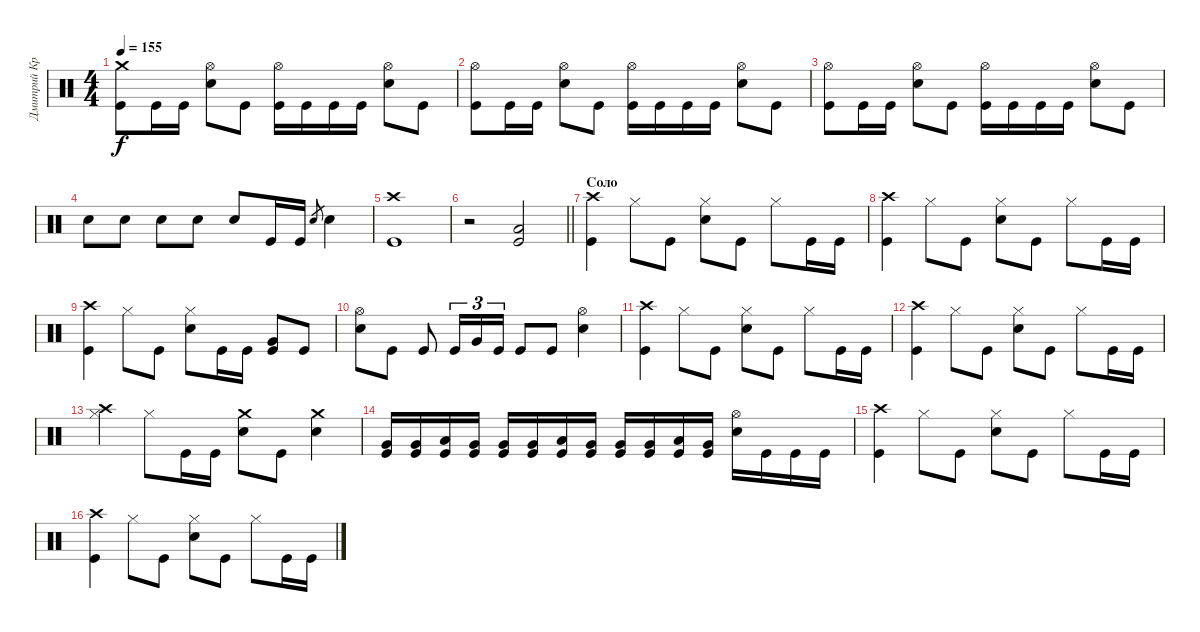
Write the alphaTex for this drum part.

\track ("Дмитрий Кривенков" "Дмитрий Кр") {instrument percussion}
\staff {score}
\articulation defaults
\ts (4 4)
\tempo 155
\clef neutral
\ks c
("Crash medium (hit)" "Kick (hit)").8{dy f} "Kick (hit)".16 "Kick (hit)".16 ("Hi-Hat (open)" "Snare (hit) 2").8 "Kick (hit)".8 ("Hi-Hat (open)" "Kick (hit)").16 "Kick (hit)".16 "Kick (hit)".16 "Kick (hit)".16 ("Hi-Hat (open)" "Snare (hit) 2").8 "Kick (hit)".8 |
("Hi-Hat (open)" "Kick (hit)").8 "Kick (hit)".16 "Kick (hit)".16 ("Hi-Hat (open)" "Snare (hit) 2").8 "Kick (hit)".8 ("Hi-Hat (open)" "Kick (hit)").16 "Kick (hit)".16 "Kick (hit)".16 "Kick (hit)".16 ("Hi-Hat (open)" "Snare (hit) 2").8 "Kick (hit)".8 |
("Hi-Hat (open)" "Kick (hit)").8 "Kick (hit)".16 "Kick (hit)".16 ("Hi-Hat (open)" "Snare (hit) 2").8 "Kick (hit)".8 ("Hi-Hat (open)" "Kick (hit)").16 "Kick (hit)".16 "Kick (hit)".16 "Kick (hit)".16 ("Hi-Hat (open)" "Snare (hit) 2").8 "Kick (hit)".8 |
"Snare (hit) 2".8 "Snare (hit) 2".8 "Snare (hit) 2".8 "Snare (hit) 2".8 "Snare (hit) 2".8 "Kick (hit)".16 "Kick (hit)".16 "Snare (hit) 2".8{gr} "Snare (hit) 2".4 |
("Crash high (hit)" "Kick (hit)").1 |
\barLineRight lightlight
r.2 ("Low Tom (hit)" "Kick (hit)").2 |
\section ("" "Соло")
("Crash high (hit)" "Kick (hit)").4 "Hi-Hat (closed)".8 "Kick (hit)".8 ("Hi-Hat (closed)" "Snare (hit) 2").8 "Kick (hit)".8 "Hi-Hat (closed)".8 "Kick (hit)".16 "Kick (hit)".16 |
("Crash high (hit)" "Kick (hit)").4 "Hi-Hat (closed)".8 "Kick (hit)".8 ("Hi-Hat (closed)" "Snare (hit) 2").8 "Kick (hit)".8 "Hi-Hat (closed)".8 "Kick (hit)".16 "Kick (hit)".16 |
("Crash high (hit)" "Kick (hit)").4 "Hi-Hat (closed)".8 "Kick (hit)".8 ("Hi-Hat (closed)" "Snare (hit) 2").8 "Kick (hit)".16 "Kick (hit)".16 ("Very Low Tom (hit)" "Kick (hit)").8 "Kick (hit)".8 |
("Hi-Hat (open)" "Snare (hit) 2").8 "Kick (hit)".8 "Kick (hit)".8 "Kick (hit)".16{tu (3 2)} "Very Low Tom (hit)".16{tu (3 2)} "Kick (hit)".16{tu (3 2)} "Kick (hit)".8 "Kick (hit)".8 ("Hi-Hat (open)" "Snare (hit) 2").4 |
("Crash high (hit)" "Kick (hit)").4 "Hi-Hat (closed)".8 "Kick (hit)".8 ("Hi-Hat (closed)" "Snare (hit) 2").8 "Kick (hit)".8 "Hi-Hat (closed)".8 "Kick (hit)".16 "Kick (hit)".16 |
("Crash high (hit)" "Kick (hit)").4 "Hi-Hat (closed)".8 "Kick (hit)".8 ("Hi-Hat (closed)" "Snare (hit) 2").8 "Kick (hit)".8 "Hi-Hat (closed)".8 "Kick (hit)".16 "Kick (hit)".16 |
("Crash high (hit)" "Hi-Hat (closed)").4 "Hi-Hat (closed)".8 "Kick (hit)".16 "Kick (hit)".16 ("Crash medium (hit)" "Snare (hit) 2").8 "Kick (hit)".8 ("Crash medium (hit)" "Snare (hit) 2").4 |
("Very Low Tom (hit)" "Kick (hit)").16 ("Very Low Tom (hit)" "Kick (hit)").16 ("Low Floor Tom (hit)" "Kick (hit)").16 ("Very Low Tom (hit)" "Kick (hit)").16 ("Very Low Tom (hit)" "Kick (hit)").16 ("Very Low Tom (hit)" "Kick (hit)").16 ("Low Floor Tom (hit)" "Kick (hit)").16 ("Very Low Tom (hit)" "Kick (hit)").16 ("Very Low Tom (hit)" "Kick (hit)").16 ("Very Low Tom (hit)" "Kick (hit)").16 ("Low Floor Tom (hit)" "Kick (hit)").16 ("Very Low Tom (hit)" "Kick (hit)").16 ("Hi-Hat (open)" "Snare (hit) 2").16 "Kick (hit)".16 "Kick (hit)".16 "Kick (hit)".16 |
("Crash high (hit)" "Kick (hit)").4 "Hi-Hat (closed)".8 "Kick (hit)".8 ("Hi-Hat (closed)" "Snare (hit) 2").8 "Kick (hit)".8 "Hi-Hat (closed)".8 "Kick (hit)".16 "Kick (hit)".16 |
("Crash high (hit)" "Kick (hit)").4 "Hi-Hat (closed)".8 "Kick (hit)".8 ("Hi-Hat (closed)" "Snare (hit) 2").8 "Kick (hit)".8 "Hi-Hat (closed)".8 "Kick (hit)".16 "Kick (hit)".16
